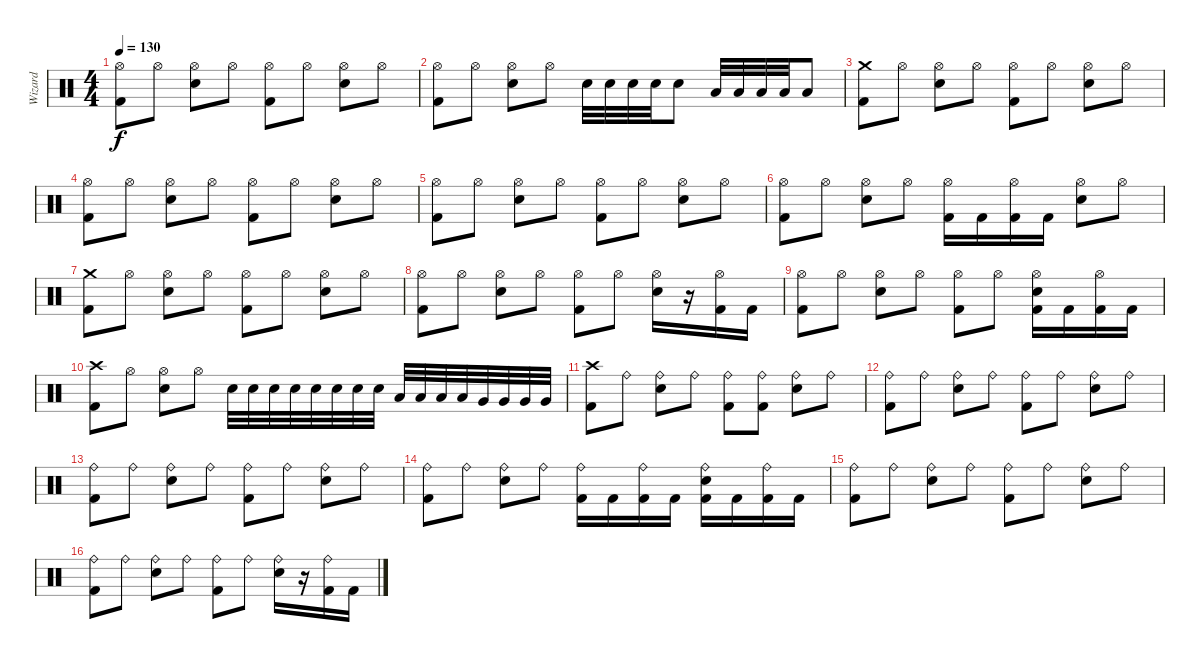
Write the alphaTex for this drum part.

\track ("Wizard" "Wizard") {instrument percussion}
\staff {score}
\articulation defaults
\ts (4 4)
\tempo 130
\clef neutral
\ks c
("Hi-Hat (open)" "Kick (hit) 2").8{dy f} "Hi-Hat (open)".8 ("Hi-Hat (open)" "Snare (hit) 2").8 "Hi-Hat (open)".8 ("Hi-Hat (open)" "Kick (hit) 2").8 "Hi-Hat (open)".8 ("Hi-Hat (open)" "Snare (hit) 2").8 "Hi-Hat (open)".8 |
("Hi-Hat (open)" "Kick (hit) 2").8 "Hi-Hat (open)".8 ("Hi-Hat (open)" "Snare (hit) 2").8 "Hi-Hat (open)".8 "Snare (hit) 2".32 "Snare (hit) 2".32 "Snare (hit) 2".32 "Snare (hit) 2".32 "Snare (hit) 2".8 "Low Tom (hit)".32 "Low Tom (hit)".32 "Low Tom (hit)".32 "Low Tom (hit)".32 "Low Tom (hit)".8 |
("Crash medium (hit)" "Kick (hit) 2").8 "Hi-Hat (open)".8 ("Hi-Hat (open)" "Snare (hit) 2").8 "Hi-Hat (open)".8 ("Hi-Hat (open)" "Kick (hit) 2").8 "Hi-Hat (open)".8 ("Hi-Hat (open)" "Snare (hit) 2").8 "Hi-Hat (open)".8 |
("Hi-Hat (open)" "Kick (hit) 2").8 "Hi-Hat (open)".8 ("Hi-Hat (open)" "Snare (hit) 2").8 "Hi-Hat (open)".8 ("Hi-Hat (open)" "Kick (hit) 2").8 "Hi-Hat (open)".8 ("Hi-Hat (open)" "Snare (hit) 2").8 "Hi-Hat (open)".8 |
("Hi-Hat (open)" "Kick (hit) 2").8 "Hi-Hat (open)".8 ("Hi-Hat (open)" "Snare (hit) 2").8 "Hi-Hat (open)".8 ("Hi-Hat (open)" "Kick (hit) 2").8 "Hi-Hat (open)".8 ("Hi-Hat (open)" "Snare (hit) 2").8 "Hi-Hat (open)".8 |
("Hi-Hat (open)" "Kick (hit) 2").8 "Hi-Hat (open)".8 ("Hi-Hat (open)" "Snare (hit) 2").8 "Hi-Hat (open)".8 ("Hi-Hat (open)" "Kick (hit) 2").16 "Kick (hit) 2".16 ("Hi-Hat (open)" "Kick (hit) 2").16 "Kick (hit) 2".16 ("Hi-Hat (open)" "Snare (hit) 2").8 "Hi-Hat (open)".8 |
("Crash medium (hit)" "Kick (hit) 2").8 "Hi-Hat (open)".8 ("Hi-Hat (open)" "Snare (hit) 2").8 "Hi-Hat (open)".8 ("Hi-Hat (open)" "Kick (hit) 2").8 "Hi-Hat (open)".8 ("Hi-Hat (open)" "Snare (hit) 2").8 "Hi-Hat (open)".8 |
("Hi-Hat (open)" "Kick (hit) 2").8 "Hi-Hat (open)".8 ("Hi-Hat (open)" "Snare (hit) 2").8 "Hi-Hat (open)".8 ("Hi-Hat (open)" "Kick (hit) 2").8 "Hi-Hat (open)".8 ("Hi-Hat (open)" "Snare (hit) 2").16 r.16 ("Hi-Hat (open)" "Kick (hit) 2").16 "Kick (hit) 2".16 |
("Hi-Hat (open)" "Kick (hit) 2").8 "Hi-Hat (open)".8 ("Hi-Hat (open)" "Snare (hit) 2").8 "Hi-Hat (open)".8 ("Hi-Hat (open)" "Kick (hit) 2").8 "Hi-Hat (open)".8 ("Hi-Hat (open)" "Snare (hit) 2" "Kick (hit) 2").16 "Kick (hit) 2".16 ("Hi-Hat (open)" "Kick (hit) 2").16 "Kick (hit) 2".16 |
("Crash high (hit)" "Kick (hit) 2").8 "Hi-Hat (open)".8 ("Hi-Hat (open)" "Snare (hit) 2").8 "Hi-Hat (open)".8 "Snare (hit) 2".32 "Snare (hit) 2".32 "Snare (hit) 2".32 "Snare (hit) 2".32 "Snare (hit) 2".32 "Snare (hit) 2".32 "Snare (hit) 2".32 "Snare (hit) 2".32 "Low Tom (hit)".32 "Low Tom (hit)".32 "Low Tom (hit)".32 "Low Tom (hit)".32 "Very Low Tom (hit)".32 "Very Low Tom (hit)".32 "Very Low Tom (hit)".32 "Very Low Tom (hit)".32 |
("Crash high (hit)" "Kick (hit) 2").8 "Ride (bell)".8 ("Ride (bell)" "Snare (hit) 2").8 "Ride (bell)".8 ("Ride (bell)" "Kick (hit) 2").8 ("Ride (bell)" "Kick (hit) 2").8 ("Ride (bell)" "Snare (hit) 2").8 "Ride (bell)".8 |
("Ride (bell)" "Kick (hit) 2").8 "Ride (bell)".8 ("Ride (bell)" "Snare (hit) 2").8 "Ride (bell)".8 ("Ride (bell)" "Kick (hit) 2").8 "Ride (bell)".8 ("Ride (bell)" "Snare (hit) 2").8 "Ride (bell)".8 |
("Ride (bell)" "Kick (hit) 2").8 "Ride (bell)".8 ("Ride (bell)" "Snare (hit) 2").8 "Ride (bell)".8 ("Ride (bell)" "Kick (hit) 2").8 "Ride (bell)".8 ("Ride (bell)" "Snare (hit) 2").8 "Ride (bell)".8 |
("Ride (bell)" "Kick (hit) 2").8 "Ride (bell)".8 ("Ride (bell)" "Snare (hit) 2").8 "Ride (bell)".8 ("Ride (bell)" "Kick (hit) 2").16 "Kick (hit) 2".16 ("Ride (bell)" "Kick (hit) 2").16 "Kick (hit) 2".16 ("Ride (bell)" "Snare (hit) 2" "Kick (hit) 2").16 "Kick (hit) 2".16 ("Ride (bell)" "Kick (hit) 2").16 "Kick (hit) 2".16 |
("Ride (bell)" "Kick (hit) 2").8 "Ride (bell)".8 ("Ride (bell)" "Snare (hit) 2").8 "Ride (bell)".8 ("Ride (bell)" "Kick (hit) 2").8 "Ride (bell)".8 ("Ride (bell)" "Snare (hit) 2").8 "Ride (bell)".8 |
("Ride (bell)" "Kick (hit) 2").8 "Ride (bell)".8 ("Ride (bell)" "Snare (hit) 2").8 "Ride (bell)".8 ("Ride (bell)" "Kick (hit) 2").8 "Ride (bell)".8 ("Ride (bell)" "Snare (hit) 2").16 r.16 ("Ride (bell)" "Kick (hit) 2").16 "Kick (hit) 2".16
